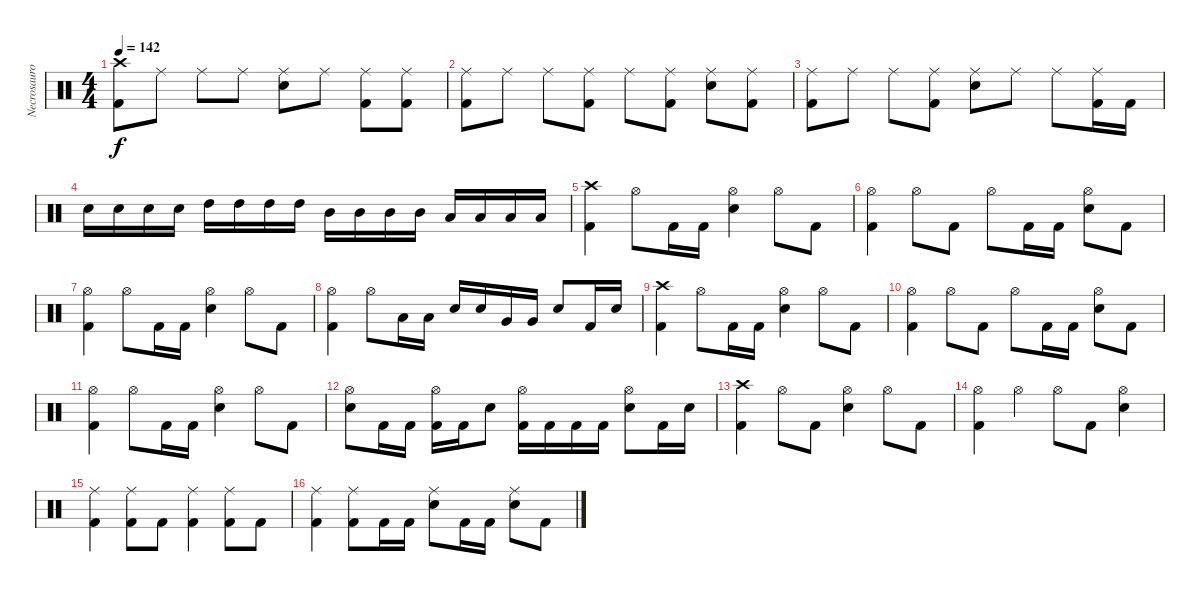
\track ("Necrosauron" "Necrosauro") {instrument percussion}
\staff {score}
\articulation defaults
\ts (4 4)
\tempo 142
\clef neutral
\ks c
("Crash high (hit)" "Kick (hit) 2").8{dy f} "Ride (middle)".8 "Ride (middle)".8 "Ride (middle)".8 ("Ride (middle)" "Snare (hit) 2").8 "Ride (middle)".8 ("Ride (middle)" "Kick (hit) 2").8 ("Ride (middle)" "Kick (hit) 2").8 |
("Ride (middle)" "Kick (hit) 2").8 "Ride (middle)".8 "Ride (middle)".8 ("Ride (middle)" "Kick (hit) 2").8 "Ride (middle)".8 ("Ride (middle)" "Kick (hit) 2").8 ("Ride (middle)" "Snare (hit) 2").8 ("Ride (middle)" "Kick (hit) 2").8 |
("Ride (middle)" "Kick (hit) 2").8 "Ride (middle)".8 "Ride (middle)".8 ("Ride (middle)" "Kick (hit) 2").8 ("Ride (middle)" "Snare (hit) 2").8 "Ride (middle)".8 "Ride (middle)".8 ("Ride (middle)" "Kick (hit) 2").16 "Kick (hit) 2".16 |
"Snare (hit) 2".16 "Snare (hit) 2".16 "Snare (hit) 2".16 "Snare (hit) 2".16 "High Tom (hit)".16 "High Tom (hit)".16 "High Tom (hit)".16 "High Tom (hit)".16 "Mid Tom (hit)".16 "Mid Tom (hit)".16 "Mid Tom (hit)".16 "Mid Tom (hit)".16 "Low Tom (hit)".16 "Low Tom (hit)".16 "Low Tom (hit)".16 "Low Tom (hit)".16 |
("Crash high (hit)" "Kick (hit) 2").4 "Hi-Hat (open)".8 "Kick (hit) 2".16 "Kick (hit) 2".16 ("Hi-Hat (open)" "Snare (hit) 2").4 "Hi-Hat (open)".8 "Kick (hit) 2".8 |
("Hi-Hat (open)" "Kick (hit) 2").4 "Hi-Hat (open)".8 "Kick (hit) 2".8 "Hi-Hat (open)".8 "Kick (hit) 2".16 "Kick (hit) 2".16 ("Hi-Hat (open)" "Snare (hit) 2").8 "Kick (hit) 2".8 |
("Hi-Hat (open)" "Kick (hit) 2").4 "Hi-Hat (open)".8 "Kick (hit) 2".16 "Kick (hit) 2".16 ("Hi-Hat (open)" "Snare (hit) 2").4 "Hi-Hat (open)".8 "Kick (hit) 2".8 |
("Hi-Hat (open)" "Kick (hit) 2").4 "Hi-Hat (open)".8 "Low Tom (hit)".16 "Low Tom (hit)".16 "Snare (hit) 2".16 "Snare (hit) 2".16 "Very Low Tom (hit)".16 "Very Low Tom (hit)".16 "Snare (hit) 2".8 "Kick (hit) 2".16 "Snare (hit) 2".16 |
("Crash high (hit)" "Kick (hit) 2").4 "Hi-Hat (open)".8 "Kick (hit) 2".16 "Kick (hit) 2".16 ("Hi-Hat (open)" "Snare (hit) 2").4 "Hi-Hat (open)".8 "Kick (hit) 2".8 |
("Hi-Hat (open)" "Kick (hit) 2").4 "Hi-Hat (open)".8 "Kick (hit) 2".8 "Hi-Hat (open)".8 "Kick (hit) 2".16 "Kick (hit) 2".16 ("Hi-Hat (open)" "Snare (hit) 2").8 "Kick (hit) 2".8 |
("Hi-Hat (open)" "Kick (hit) 2").4 "Hi-Hat (open)".8 "Kick (hit) 2".16 "Kick (hit) 2".16 ("Hi-Hat (open)" "Snare (hit) 2").4 "Hi-Hat (open)".8 "Kick (hit) 2".8 |
("Hi-Hat (open)" "Snare (hit) 2").8 "Kick (hit) 2".16 "Kick (hit) 2".16 ("Hi-Hat (open)" "Kick (hit) 2").16 "Kick (hit) 2".16 "Snare (hit) 2".8 ("Hi-Hat (open)" "Kick (hit) 2").16 "Kick (hit) 2".16 "Kick (hit) 2".16 "Kick (hit) 2".16 ("Hi-Hat (open)" "Snare (hit) 2").8 "Kick (hit) 2".16 "Snare (hit) 2".16 |
("Crash high (hit)" "Kick (hit) 2").4 "Hi-Hat (open)".8 "Kick (hit) 2".8 ("Hi-Hat (open)" "Snare (hit) 2").4 "Hi-Hat (open)".8 "Kick (hit) 2".8 |
("Hi-Hat (open)" "Kick (hit) 2").4 "Hi-Hat (open)".4 "Hi-Hat (open)".8 "Kick (hit) 2".8 ("Hi-Hat (open)" "Snare (hit) 2").4 |
("Ride (middle)" "Kick (hit) 2").4 ("Ride (middle)" "Kick (hit) 2").8 "Kick (hit) 2".8 ("Ride (middle)" "Kick (hit) 2").4 ("Ride (middle)" "Kick (hit) 2").8 "Kick (hit) 2".8 |
("Ride (middle)" "Kick (hit) 2").4 ("Ride (middle)" "Kick (hit) 2").8 "Kick (hit) 2".16 "Kick (hit) 2".16 ("Ride (middle)" "Snare (hit) 2").8 "Kick (hit) 2".16 "Kick (hit) 2".16 ("Ride (middle)" "Snare (hit) 2").8 "Kick (hit) 2".8
